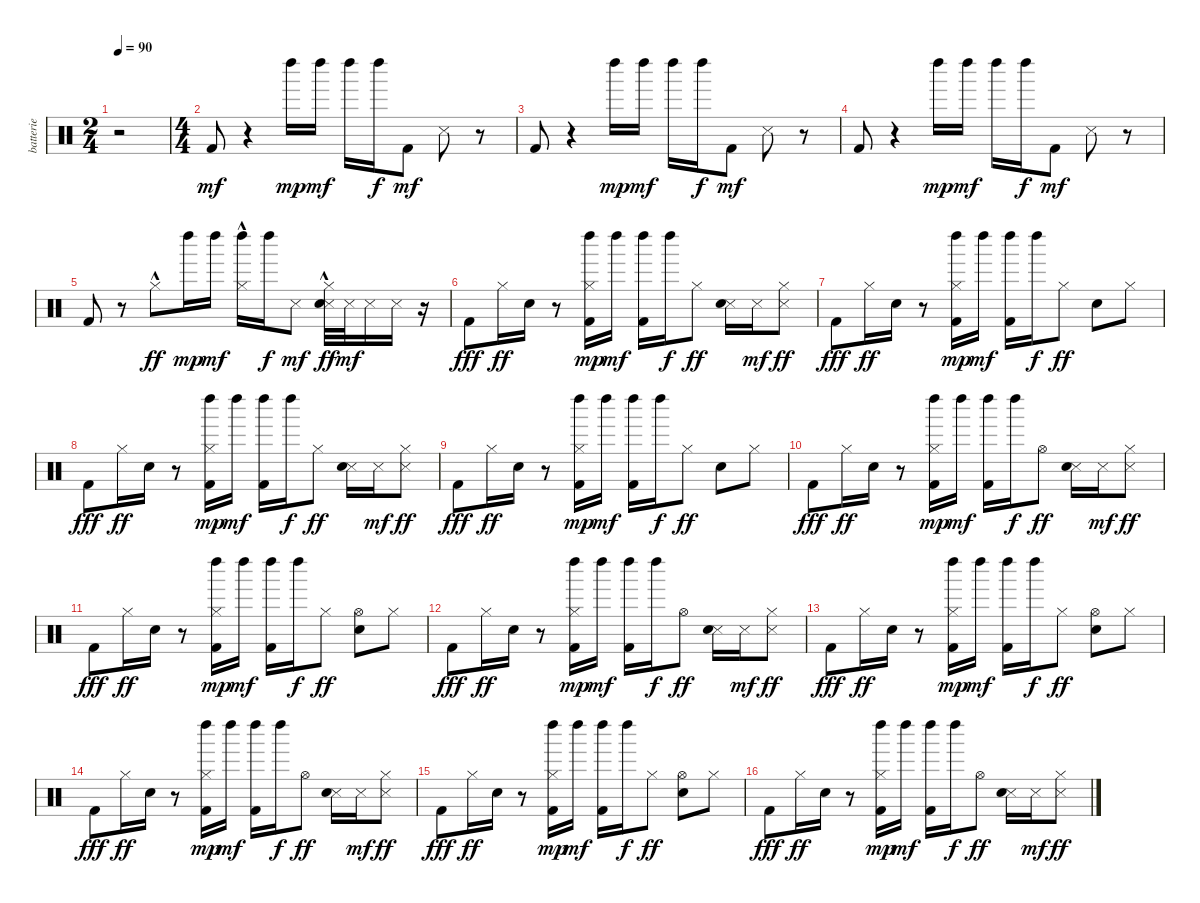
\track ("batterie" "batterie") {instrument percussion}
\staff {score}
\articulation defaults
\ts (2 4)
\tempo 90
\clef neutral
\ks c
r.2{dy mf} |
\ts (4 4)
"Kick (hit) 2".8 r.4 "Left Maraca (hit)".16{dy mp} "Left Maraca (hit)".16{dy mf} "Left Maraca (hit)".16 "Left Maraca (hit)".16{dy f} "Kick (hit) 2".8{dy mf} "Snare (side stick) 3".8 r.8 |
"Kick (hit) 2".8 r.4 "Left Maraca (hit)".16{dy mp} "Left Maraca (hit)".16{dy mf} "Left Maraca (hit)".16 "Left Maraca (hit)".16{dy f} "Kick (hit) 2".8{dy mf} "Snare (side stick) 3".8 r.8 |
"Kick (hit) 2".8 r.4 "Left Maraca (hit)".16{dy mp} "Left Maraca (hit)".16{dy mf} "Left Maraca (hit)".16 "Left Maraca (hit)".16{dy f} "Kick (hit) 2".8{dy mf} "Snare (side stick) 3".8 r.8 |
"Kick (hit) 2".8 r.8 "Hi-Hat (closed)"{hac}.8{dy ff} "Left Maraca (hit)".16{dy mp} "Left Maraca (hit)".16{dy mf} ("Hi-Hat (closed)"{hac} "Left Maraca (hit)").16 "Left Maraca (hit)".16{dy f} "Snare (side stick) 3".8{dy mf} ("Snare (side stick) 3" "Snare (hit) 2"{hac} "Hi-Hat (closed)"{hac}).32{dy ff} "Snare (side stick) 3".32{dy mf} "Snare (side stick) 3".16 "Snare (side stick) 3".16 r.16 |
"Kick (hit) 2".8{dy fff} "Hi-Hat (closed)".16{dy ff} "Electric Snare (hit)".16 r.8 ("Kick (hit) 2" "Hi-Hat (closed)" "Left Maraca (hit)").16{dy mp} "Left Maraca (hit)".16{dy mf} ("Kick (hit) 2" "Left Maraca (hit)").16 "Left Maraca (hit)".16{dy f} "Hi-Hat (closed)".8{dy ff} ("Snare (side stick) 3" "Electric Snare (hit)").16 "Snare (side stick) 3".16{dy mf} ("Snare (side stick) 3" "Hi-Hat (closed)").8{dy ff} |
"Kick (hit) 2".8{dy fff} "Hi-Hat (closed)".16{dy ff} "Electric Snare (hit)".16 r.8 ("Kick (hit) 2" "Hi-Hat (closed)" "Left Maraca (hit)").16{dy mp} "Left Maraca (hit)".16{dy mf} ("Kick (hit) 2" "Left Maraca (hit)").16 "Left Maraca (hit)".16{dy f} "Hi-Hat (closed)".8{dy ff} "Electric Snare (hit)".8 "Hi-Hat (closed)".8 |
"Kick (hit) 2".8{dy fff} "Hi-Hat (closed)".16{dy ff} "Electric Snare (hit)".16 r.8 ("Kick (hit) 2" "Hi-Hat (closed)" "Left Maraca (hit)").16{dy mp} "Left Maraca (hit)".16{dy mf} ("Kick (hit) 2" "Left Maraca (hit)").16 "Left Maraca (hit)".16{dy f} "Hi-Hat (closed)".8{dy ff} ("Snare (side stick) 3" "Electric Snare (hit)").16 "Snare (side stick) 3".16{dy mf} ("Snare (side stick) 3" "Hi-Hat (closed)").8{dy ff} |
"Kick (hit) 2".8{dy fff} "Hi-Hat (closed)".16{dy ff} "Electric Snare (hit)".16 r.8 ("Kick (hit) 2" "Hi-Hat (closed)" "Left Maraca (hit)").16{dy mp} "Left Maraca (hit)".16{dy mf} ("Kick (hit) 2" "Left Maraca (hit)").16 "Left Maraca (hit)".16{dy f} "Hi-Hat (closed)".8{dy ff} "Electric Snare (hit)".8 "Hi-Hat (closed)".8 |
"Kick (hit) 2".8{dy fff} "Hi-Hat (closed)".16{dy ff} "Electric Snare (hit)".16 r.8 ("Kick (hit) 2" "Hi-Hat (closed)" "Left Maraca (hit)").16{dy mp} "Left Maraca (hit)".16{dy mf} ("Kick (hit) 2" "Left Maraca (hit)").16 "Left Maraca (hit)".16{dy f} "Hi-Hat (open)".8{dy ff} ("Snare (side stick) 3" "Electric Snare (hit)").16 "Snare (side stick) 3".16{dy mf} ("Snare (side stick) 3" "Hi-Hat (closed)").8{dy ff} |
"Kick (hit) 2".8{dy fff} "Hi-Hat (closed)".16{dy ff} "Electric Snare (hit)".16 r.8 ("Kick (hit) 2" "Hi-Hat (closed)" "Left Maraca (hit)").16{dy mp} "Left Maraca (hit)".16{dy mf} ("Kick (hit) 2" "Left Maraca (hit)").16 "Left Maraca (hit)".16{dy f} "Hi-Hat (closed)".8{dy ff} ("Electric Snare (hit)" "Hi-Hat (open)").8 "Hi-Hat (closed)".8 |
"Kick (hit) 2".8{dy fff} "Hi-Hat (closed)".16{dy ff} "Electric Snare (hit)".16 r.8 ("Kick (hit) 2" "Hi-Hat (closed)" "Left Maraca (hit)").16{dy mp} "Left Maraca (hit)".16{dy mf} ("Kick (hit) 2" "Left Maraca (hit)").16 "Left Maraca (hit)".16{dy f} "Hi-Hat (open)".8{dy ff} ("Snare (side stick) 3" "Electric Snare (hit)").16 "Snare (side stick) 3".16{dy mf} ("Snare (side stick) 3" "Hi-Hat (closed)").8{dy ff} |
"Kick (hit) 2".8{dy fff} "Hi-Hat (closed)".16{dy ff} "Electric Snare (hit)".16 r.8 ("Kick (hit) 2" "Hi-Hat (closed)" "Left Maraca (hit)").16{dy mp} "Left Maraca (hit)".16{dy mf} ("Kick (hit) 2" "Left Maraca (hit)").16 "Left Maraca (hit)".16{dy f} "Hi-Hat (closed)".8{dy ff} ("Electric Snare (hit)" "Hi-Hat (open)").8 "Hi-Hat (closed)".8 |
"Kick (hit) 2".8{dy fff} "Hi-Hat (closed)".16{dy ff} "Electric Snare (hit)".16 r.8 ("Kick (hit) 2" "Hi-Hat (closed)" "Left Maraca (hit)").16{dy mp} "Left Maraca (hit)".16{dy mf} ("Kick (hit) 2" "Left Maraca (hit)").16 "Left Maraca (hit)".16{dy f} "Hi-Hat (open)".8{dy ff} ("Snare (side stick) 3" "Electric Snare (hit)").16 "Snare (side stick) 3".16{dy mf} ("Snare (side stick) 3" "Hi-Hat (closed)").8{dy ff} |
"Kick (hit) 2".8{dy fff} "Hi-Hat (closed)".16{dy ff} "Electric Snare (hit)".16 r.8 ("Kick (hit) 2" "Hi-Hat (closed)" "Left Maraca (hit)").16{dy mp} "Left Maraca (hit)".16{dy mf} ("Kick (hit) 2" "Left Maraca (hit)").16 "Left Maraca (hit)".16{dy f} "Hi-Hat (closed)".8{dy ff} ("Electric Snare (hit)" "Hi-Hat (open)").8 "Hi-Hat (closed)".8 |
"Kick (hit) 2".8{dy fff} "Hi-Hat (closed)".16{dy ff} "Electric Snare (hit)".16 r.8 ("Kick (hit) 2" "Hi-Hat (closed)" "Left Maraca (hit)").16{dy mp} "Left Maraca (hit)".16{dy mf} ("Kick (hit) 2" "Left Maraca (hit)").16 "Left Maraca (hit)".16{dy f} "Hi-Hat (open)".8{dy ff} ("Snare (side stick) 3" "Electric Snare (hit)").16 "Snare (side stick) 3".16{dy mf} ("Snare (side stick) 3" "Hi-Hat (closed)").8{dy ff}
